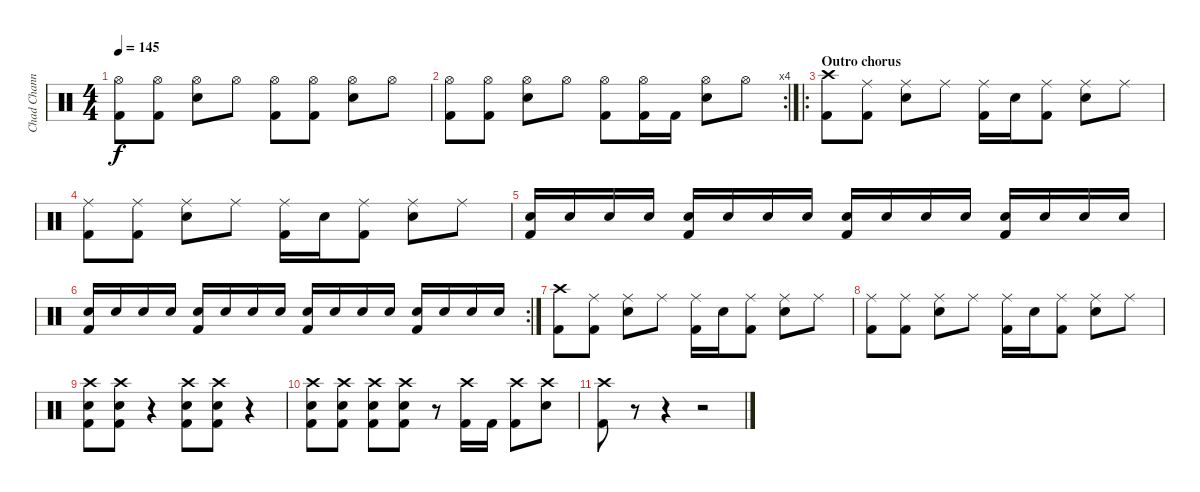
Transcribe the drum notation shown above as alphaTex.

\track ("Chad Channing" "Chad Chann") {instrument percussion}
\staff {score}
\articulation defaults
\ts (4 4)
\tempo 145
\clef neutral
\ks c
("Hi-Hat (open)" "Kick (hit) 2").8{dy f} ("Hi-Hat (open)" "Kick (hit) 2").8 ("Hi-Hat (open)" "Electric Snare (hit)").8 "Hi-Hat (open)".8 ("Hi-Hat (open)" "Kick (hit) 2").8 ("Hi-Hat (open)" "Kick (hit) 2").8 ("Hi-Hat (open)" "Electric Snare (hit)").8 "Hi-Hat (open)".8 |
\rc 4
("Hi-Hat (open)" "Kick (hit) 2").8 ("Hi-Hat (open)" "Kick (hit) 2").8 ("Hi-Hat (open)" "Electric Snare (hit)").8 "Hi-Hat (open)".8 ("Hi-Hat (open)" "Kick (hit) 2").8 ("Hi-Hat (open)" "Kick (hit) 2").16 "Kick (hit) 2".16 ("Hi-Hat (open)" "Electric Snare (hit)").8 "Hi-Hat (open)".8 |
\ro
\section ("" "Outro chorus")
("Crash high (hit)" "Kick (hit) 2").8 ("Ride (middle)" "Kick (hit) 2").8 ("Ride (middle)" "Electric Snare (hit)").8 "Ride (middle)".8 ("Ride (middle)" "Kick (hit) 2").16 "Electric Snare (hit)".16 ("Ride (middle)" "Kick (hit) 2").8 ("Ride (middle)" "Electric Snare (hit)").8 "Ride (middle)".8 |
("Ride (middle)" "Kick (hit) 2").8 ("Ride (middle)" "Kick (hit) 2").8 ("Ride (middle)" "Electric Snare (hit)").8 "Ride (middle)".8 ("Ride (middle)" "Kick (hit) 2").16 "Electric Snare (hit)".16 ("Ride (middle)" "Kick (hit) 2").8 ("Ride (middle)" "Electric Snare (hit)").8 "Ride (middle)".8 |
("Electric Snare (hit)" "Kick (hit) 2").16 "Electric Snare (hit)".16 "Electric Snare (hit)".16 "Electric Snare (hit)".16 ("Electric Snare (hit)" "Kick (hit) 2").16 "Electric Snare (hit)".16 "Electric Snare (hit)".16 "Electric Snare (hit)".16 ("Electric Snare (hit)" "Kick (hit) 2").16 "Electric Snare (hit)".16 "Electric Snare (hit)".16 "Electric Snare (hit)".16 ("Electric Snare (hit)" "Kick (hit) 2").16 "Electric Snare (hit)".16 "Electric Snare (hit)".16 "Electric Snare (hit)".16 |
\rc 2
("Electric Snare (hit)" "Kick (hit) 2").16 "Electric Snare (hit)".16 "Electric Snare (hit)".16 "Electric Snare (hit)".16 ("Electric Snare (hit)" "Kick (hit) 2").16 "Electric Snare (hit)".16 "Electric Snare (hit)".16 "Electric Snare (hit)".16 ("Electric Snare (hit)" "Kick (hit) 2").16 "Electric Snare (hit)".16 "Electric Snare (hit)".16 "Electric Snare (hit)".16 ("Electric Snare (hit)" "Kick (hit) 2").16 "Electric Snare (hit)".16 "Electric Snare (hit)".16 "Electric Snare (hit)".16 |
("Crash high (hit)" "Kick (hit) 2").8 ("Ride (middle)" "Kick (hit) 2").8 ("Ride (middle)" "Electric Snare (hit)").8 "Ride (middle)".8 ("Ride (middle)" "Kick (hit) 2").16 "Electric Snare (hit)".16 ("Ride (middle)" "Kick (hit) 2").8 ("Ride (middle)" "Electric Snare (hit)").8 "Ride (middle)".8 |
("Ride (middle)" "Kick (hit) 2").8 ("Ride (middle)" "Kick (hit) 2").8 ("Ride (middle)" "Electric Snare (hit)").8 "Ride (middle)".8 ("Ride (middle)" "Kick (hit) 2").16 "Electric Snare (hit)".16 ("Ride (middle)" "Kick (hit) 2").8 ("Ride (middle)" "Electric Snare (hit)").8 "Ride (middle)".8 |
("Crash high (hit)" "Electric Snare (hit)" "Kick (hit) 2").8 ("Crash high (hit)" "Electric Snare (hit)" "Kick (hit) 2").8 r.4 ("Crash high (hit)" "Electric Snare (hit)" "Kick (hit) 2").8 ("Crash high (hit)" "Electric Snare (hit)" "Kick (hit) 2").8 r.4 |
("Crash high (hit)" "Electric Snare (hit)" "Kick (hit) 2").8 ("Crash high (hit)" "Electric Snare (hit)" "Kick (hit) 2").8 ("Crash high (hit)" "Electric Snare (hit)" "Kick (hit) 2").8 ("Crash high (hit)" "Electric Snare (hit)" "Kick (hit) 2").8 r.8 ("Crash high (hit)" "Kick (hit) 2").16 "Kick (hit) 2".16 ("Crash high (hit)" "Kick (hit) 2").8 ("Crash high (hit)" "Electric Snare (hit)").8 |
("Crash high (hit)" "Kick (hit) 2").8 r.8 r.4 r.2
